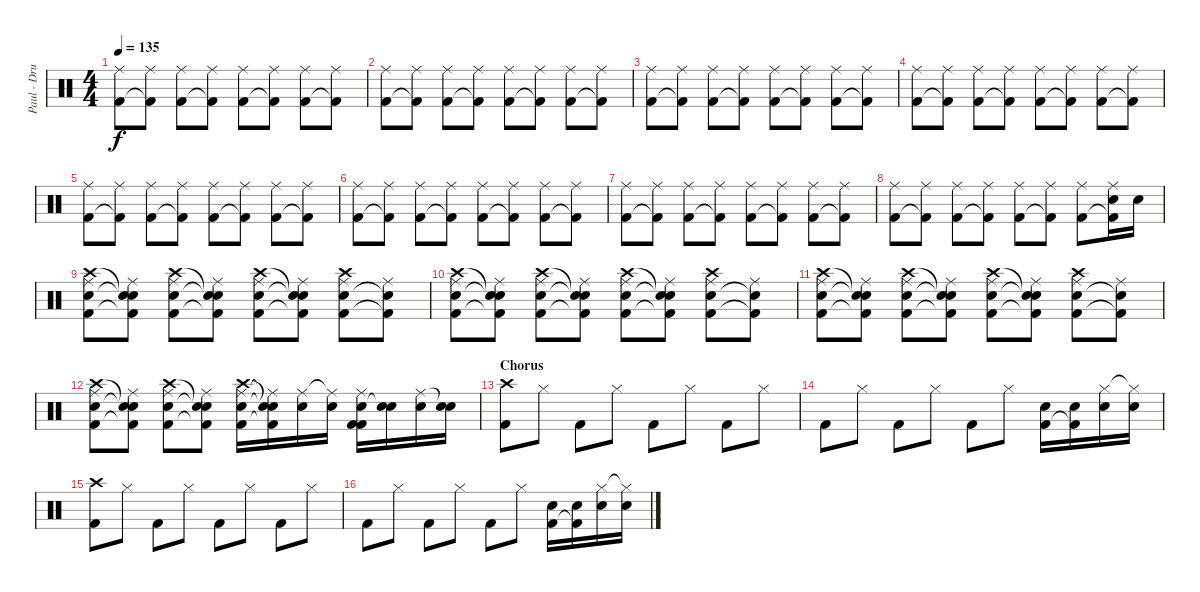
\track ("Paul - Drums" "Paul - Dru") {instrument percussion}
\staff {score}
\articulation defaults
\ts (4 4)
\tempo 135
\clef neutral
\ks c
("Kick (hit) 2" "Ride (middle)").8{dy f} ("Kick (hit) 2"{t} "Ride (middle)").8 ("Kick (hit) 2" "Ride (middle)").8 ("Kick (hit) 2"{t} "Ride (middle)").8 ("Kick (hit) 2" "Ride (middle)").8 ("Kick (hit) 2"{t} "Ride (middle)").8 ("Kick (hit) 2" "Ride (middle)").8 ("Kick (hit) 2"{t} "Ride (middle)").8 |
("Kick (hit) 2" "Ride (middle)").8 ("Kick (hit) 2"{t} "Ride (middle)").8 ("Kick (hit) 2" "Ride (middle)").8 ("Kick (hit) 2"{t} "Ride (middle)").8 ("Kick (hit) 2" "Ride (middle)").8 ("Kick (hit) 2"{t} "Ride (middle)").8 ("Kick (hit) 2" "Ride (middle)").8 ("Kick (hit) 2"{t} "Ride (middle)").8 |
("Kick (hit) 2" "Ride (middle)").8 ("Kick (hit) 2"{t} "Ride (middle)").8 ("Kick (hit) 2" "Ride (middle)").8 ("Kick (hit) 2"{t} "Ride (middle)").8 ("Kick (hit) 2" "Ride (middle)").8 ("Kick (hit) 2"{t} "Ride (middle)").8 ("Kick (hit) 2" "Ride (middle)").8 ("Kick (hit) 2"{t} "Ride (middle)").8 |
("Kick (hit) 2" "Ride (middle)").8 ("Kick (hit) 2"{t} "Ride (middle)").8 ("Kick (hit) 2" "Ride (middle)").8 ("Kick (hit) 2"{t} "Ride (middle)").8 ("Kick (hit) 2" "Ride (middle)").8 ("Kick (hit) 2"{t} "Ride (middle)").8 ("Kick (hit) 2" "Ride (middle)").8 ("Kick (hit) 2"{t} "Ride (middle)").8 |
("Kick (hit) 2" "Ride (middle)").8 ("Kick (hit) 2"{t} "Ride (middle)").8 ("Kick (hit) 2" "Ride (middle)").8 ("Kick (hit) 2"{t} "Ride (middle)").8 ("Kick (hit) 2" "Ride (middle)").8 ("Kick (hit) 2"{t} "Ride (middle)").8 ("Kick (hit) 2" "Ride (middle)").8 ("Kick (hit) 2"{t} "Ride (middle)").8 |
("Kick (hit) 2" "Ride (middle)").8 ("Kick (hit) 2"{t} "Ride (middle)").8 ("Kick (hit) 2" "Ride (middle)").8 ("Kick (hit) 2"{t} "Ride (middle)").8 ("Kick (hit) 2" "Ride (middle)").8 ("Kick (hit) 2"{t} "Ride (middle)").8 ("Kick (hit) 2" "Ride (middle)").8 ("Kick (hit) 2"{t} "Ride (middle)").8 |
("Kick (hit) 2" "Ride (middle)").8 ("Kick (hit) 2"{t} "Ride (middle)").8 ("Kick (hit) 2" "Ride (middle)").8 ("Kick (hit) 2"{t} "Ride (middle)").8 ("Kick (hit) 2" "Ride (middle)").8 ("Kick (hit) 2"{t} "Ride (middle)").8 ("Kick (hit) 2" "Ride (middle)").8 ("Kick (hit) 2"{t} "Ride (middle)").8 |
("Kick (hit) 2" "Ride (middle)").8 ("Kick (hit) 2"{t} "Ride (middle)").8 ("Kick (hit) 2" "Ride (middle)").8 ("Kick (hit) 2"{t} "Ride (middle)").8 ("Kick (hit) 2" "Ride (middle)").8 ("Kick (hit) 2"{t} "Ride (middle)").8 ("Kick (hit) 2" "Ride (middle)").8 ("Kick (hit) 2"{t} "Ride (middle)" "Snare (hit) 2").16 "Snare (hit) 2".16 |
("Kick (hit) 2" "Snare (hit) 2" "Crash high (hit)" "Ride (middle)").8 ("Kick (hit) 2"{t} "Snare (hit) 2"{t} "Snare (hit)"{t} "Ride (middle)").8 ("Kick (hit) 2" "Snare (hit) 2" "Crash high (hit)" "Ride (middle)").8 ("Kick (hit) 2"{t} "Snare (hit) 2"{t} "Snare (hit)"{t} "Ride (middle)").8 ("Kick (hit) 2" "Snare (hit) 2" "Crash high (hit)" "Ride (middle)").8 ("Kick (hit) 2"{t} "Snare (hit) 2"{t} "Snare (hit)"{t} "Ride (middle)").8 ("Kick (hit) 2" "Snare (hit) 2" "Crash high (hit)" "Ride (middle)").8 ("Kick (hit) 2"{t} "Snare (hit) 2"{t} "Ride (middle)").8 |
("Kick (hit) 2" "Snare (hit) 2" "Crash high (hit)" "Ride (middle)").8 ("Kick (hit) 2"{t} "Snare (hit) 2"{t} "Snare (hit)"{t} "Ride (middle)").8 ("Kick (hit) 2" "Snare (hit) 2" "Crash high (hit)" "Ride (middle)").8 ("Kick (hit) 2"{t} "Snare (hit) 2"{t} "Snare (hit)"{t} "Ride (middle)").8 ("Kick (hit) 2" "Snare (hit) 2" "Crash high (hit)" "Ride (middle)").8 ("Kick (hit) 2"{t} "Snare (hit) 2"{t} "Snare (hit)"{t} "Ride (middle)").8 ("Kick (hit) 2" "Snare (hit) 2" "Crash high (hit)" "Ride (middle)").8 ("Kick (hit) 2"{t} "Snare (hit) 2"{t} "Ride (middle)").8 |
("Kick (hit) 2" "Snare (hit) 2" "Crash high (hit)" "Ride (middle)").8 ("Kick (hit) 2"{t} "Snare (hit) 2"{t} "Snare (hit)"{t} "Ride (middle)").8 ("Kick (hit) 2" "Snare (hit) 2" "Crash high (hit)" "Ride (middle)").8 ("Kick (hit) 2"{t} "Snare (hit) 2"{t} "Snare (hit)"{t} "Ride (middle)").8 ("Kick (hit) 2" "Snare (hit) 2" "Crash high (hit)" "Ride (middle)").8 ("Kick (hit) 2"{t} "Snare (hit) 2"{t} "Snare (hit)"{t} "Ride (middle)").8 ("Kick (hit) 2" "Snare (hit) 2" "Crash high (hit)" "Ride (middle)").8 ("Kick (hit) 2"{t} "Snare (hit) 2"{t} "Ride (middle)").8 |
("Kick (hit) 2" "Snare (hit) 2" "Crash high (hit)" "Ride (middle)").8 ("Kick (hit) 2"{t} "Snare (hit) 2"{t} "Snare (hit)"{t} "Ride (middle)").8 ("Kick (hit) 2" "Snare (hit) 2" "Crash high (hit)" "Ride (middle)").8 ("Kick (hit) 2"{t} "Snare (hit) 2"{t} "Snare (hit)"{t} "Ride (middle)").8 ("Kick (hit) 2" "Snare (hit) 2" "Crash high (hit)" "Ride (middle)").16 ("Kick (hit) 2"{t} "Snare (hit) 2"{t} "Snare (hit)"{t} "Ride (middle)"{t}).16 ("Snare (hit) 2" "Ride (middle)").16 ("Snare (hit) 2" "Ride (middle)"{t}).16 ("Kick (hit) 2" "Snare (hit) 2" "Kick (hit) 2" "Ride (middle)").16 ("Snare (hit) 2" "Snare (hit)"{t}).16 ("Snare (hit) 2" "Ride (middle)").16 ("Snare (hit) 2" "Snare (hit)"{t}).16 |
\section ("" "Chorus")
("Kick (hit) 2" "Crash high (hit)").8 "Hi-Hat (closed)".8 "Kick (hit) 2".8 "Hi-Hat (closed)".8 "Kick (hit) 2".8 "Hi-Hat (closed)".8 "Kick (hit) 2".8 "Hi-Hat (closed)".8 |
"Kick (hit) 2".8 "Hi-Hat (closed)".8 "Kick (hit) 2".8 "Hi-Hat (closed)".8 "Kick (hit) 2".8 "Hi-Hat (closed)".8 ("Kick (hit) 2" "Snare (hit) 2").16 ("Kick (hit) 2"{t} "Snare (hit) 2").16 ("Hi-Hat (closed)" "Snare (hit) 2").16 ("Hi-Hat (closed)"{t} "Snare (hit) 2").16 |
("Kick (hit) 2" "Crash high (hit)").8 "Hi-Hat (closed)".8 "Kick (hit) 2".8 "Hi-Hat (closed)".8 "Kick (hit) 2".8 "Hi-Hat (closed)".8 "Kick (hit) 2".8 "Hi-Hat (closed)".8 |
"Kick (hit) 2".8 "Hi-Hat (closed)".8 "Kick (hit) 2".8 "Hi-Hat (closed)".8 "Kick (hit) 2".8 "Hi-Hat (closed)".8 ("Kick (hit) 2" "Snare (hit) 2").16 ("Kick (hit) 2"{t} "Snare (hit) 2").16 ("Hi-Hat (closed)" "Snare (hit) 2").16 ("Hi-Hat (closed)"{t} "Snare (hit) 2").16
